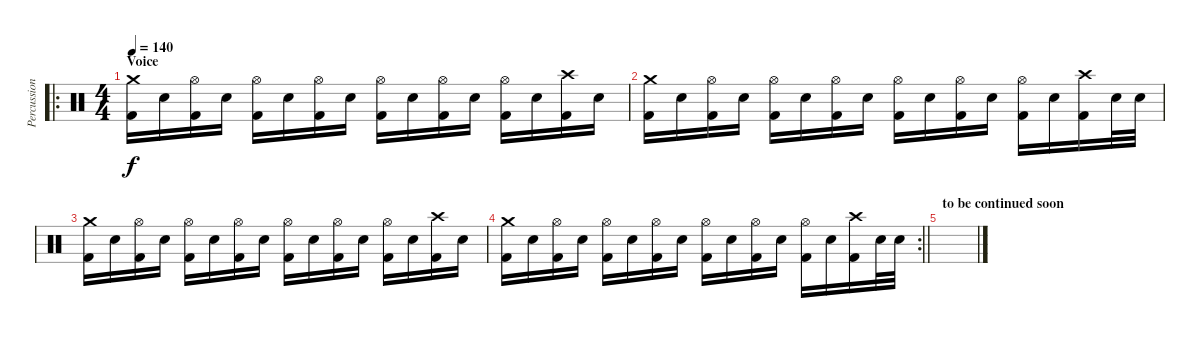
\track ("Percussion" "Percussion") {instrument percussion}
\staff {score}
\articulation defaults
\ro
\ts (4 4)
\section ("" "Voice")
\tempo 140
\clef neutral
\ks c
("Crash medium (hit)" "Kick (hit) 2").16{dy f} "Electric Snare (hit)".16 ("Hi-Hat (open)" "Kick (hit) 2").16 "Electric Snare (hit)".16 ("Hi-Hat (open)" "Kick (hit) 2").16 "Electric Snare (hit)".16 ("Hi-Hat (open)" "Kick (hit) 2").16 "Electric Snare (hit)".16 ("Hi-Hat (open)" "Kick (hit) 2").16 "Electric Snare (hit)".16 ("Hi-Hat (open)" "Kick (hit) 2").16 "Electric Snare (hit)".16 ("Hi-Hat (open)" "Kick (hit) 2").16 "Electric Snare (hit)".16 ("Crash high (hit)" "Kick (hit) 2").16 "Electric Snare (hit)".16 |
("Crash medium (hit)" "Kick (hit) 2").16 "Electric Snare (hit)".16 ("Hi-Hat (open)" "Kick (hit) 2").16 "Electric Snare (hit)".16 ("Hi-Hat (open)" "Kick (hit) 2").16 "Electric Snare (hit)".16 ("Hi-Hat (open)" "Kick (hit) 2").16 "Electric Snare (hit)".16 ("Hi-Hat (open)" "Kick (hit) 2").16 "Electric Snare (hit)".16 ("Hi-Hat (open)" "Kick (hit) 2").16 "Electric Snare (hit)".16 ("Hi-Hat (open)" "Kick (hit) 2").16 "Electric Snare (hit)".16 ("Crash high (hit)" "Kick (hit) 2").16 "Electric Snare (hit)".32 "Electric Snare (hit)".32 |
("Crash medium (hit)" "Kick (hit) 2").16 "Electric Snare (hit)".16 ("Hi-Hat (open)" "Kick (hit) 2").16 "Electric Snare (hit)".16 ("Hi-Hat (open)" "Kick (hit) 2").16 "Electric Snare (hit)".16 ("Hi-Hat (open)" "Kick (hit) 2").16 "Electric Snare (hit)".16 ("Hi-Hat (open)" "Kick (hit) 2").16 "Electric Snare (hit)".16 ("Hi-Hat (open)" "Kick (hit) 2").16 "Electric Snare (hit)".16 ("Hi-Hat (open)" "Kick (hit) 2").16 "Electric Snare (hit)".16 ("Crash high (hit)" "Kick (hit) 2").16 "Electric Snare (hit)".16 |
\rc 2
\barLineRight lightlight
("Crash medium (hit)" "Kick (hit) 2").16 "Electric Snare (hit)".16 ("Hi-Hat (open)" "Kick (hit) 2").16 "Electric Snare (hit)".16 ("Hi-Hat (open)" "Kick (hit) 2").16 "Electric Snare (hit)".16 ("Hi-Hat (open)" "Kick (hit) 2").16 "Electric Snare (hit)".16 ("Hi-Hat (open)" "Kick (hit) 2").16 "Electric Snare (hit)".16 ("Hi-Hat (open)" "Kick (hit) 2").16 "Electric Snare (hit)".16 ("Hi-Hat (open)" "Kick (hit) 2").16 "Electric Snare (hit)".16 ("Crash high (hit)" "Kick (hit) 2").16 "Electric Snare (hit)".32 "Electric Snare (hit)".32 |
\section ("" "to be continued soon")
